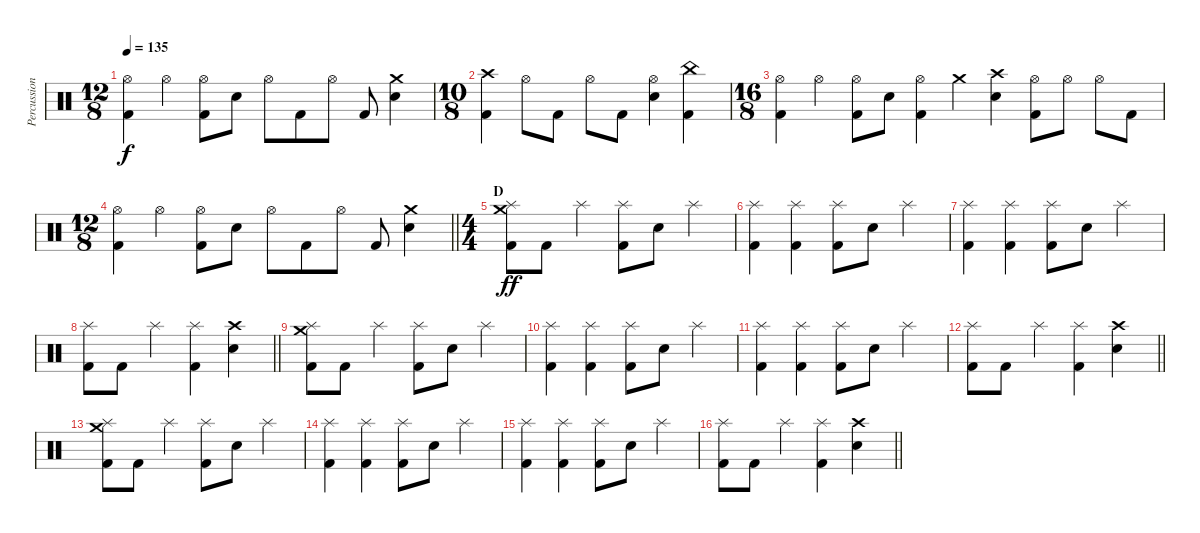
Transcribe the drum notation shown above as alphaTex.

\track ("Percussion" "Percussion") {instrument percussion}
\staff {score}
\articulation defaults
\ts (12 8)
\section ("" "")
\tempo 135
\clef neutral
\ks c
("Hi-Hat (open)" "Kick (hit) 2").4{dy f} "Hi-Hat (open)".4 ("Hi-Hat (open)" "Kick (hit) 2").8 "Snare (hit) 2".8 "Hi-Hat (open)".8 "Kick (hit) 2".8 "Hi-Hat (open)".8 "Kick (hit) 2".8 ("Crash medium (hit)" "Snare (hit) 2").4 |
\ts (10 8)
("Crash high (hit)" "Kick (hit) 2").4 "Hi-Hat (open)".8 "Kick (hit) 2".8 "Hi-Hat (open)".8 "Kick (hit) 2".8 ("Hi-Hat (open)" "Snare (hit) 2").4 ("China (hit)" "Kick (hit) 2").4 |
\ts (16 8)
("Hi-Hat (open)" "Kick (hit) 2").4 "Hi-Hat (open)".4 ("Hi-Hat (open)" "Kick (hit) 2").8 "Snare (hit) 2".8 ("Hi-Hat (open)" "Kick (hit) 2").4 "Crash medium (hit)".4 ("Crash high (hit)" "Snare (hit) 2").4 ("Hi-Hat (open)" "Kick (hit) 2").8 "Hi-Hat (open)".8 "Hi-Hat (open)".8 "Kick (hit) 2".8 |
\ts (12 8)
\barLineRight lightlight
("Hi-Hat (open)" "Kick (hit) 2").4 "Hi-Hat (open)".4 ("Hi-Hat (open)" "Kick (hit) 2").8 "Snare (hit) 2".8 "Hi-Hat (open)".8 "Kick (hit) 2".8 "Hi-Hat (open)".8 "Kick (hit) 2".8 ("Crash medium (hit)" "Snare (hit) 2").4 |
\ts (4 4)
\section ("" "D")
("Crash medium (hit)" "Splash (hit)" "Kick (hit) 2").8{dy ff} "Kick (hit) 2".8 "Splash (hit)".4 ("Splash (hit)" "Kick (hit) 2").8 "Electric Snare (hit)".8 "Splash (hit)".4 |
("Splash (hit)" "Kick (hit) 2").4 ("Splash (hit)" "Kick (hit) 2").4 ("Splash (hit)" "Kick (hit) 2").8 "Electric Snare (hit)".8 "Splash (hit)".4 |
("Splash (hit)" "Kick (hit) 2").4 ("Splash (hit)" "Kick (hit) 2").4 ("Splash (hit)" "Kick (hit) 2").8 "Electric Snare (hit)".8 "Splash (hit)".4 |
\barLineRight lightlight
("Splash (hit)" "Kick (hit) 2").8 "Kick (hit) 2".8 "Splash (hit)".4 ("Splash (hit)" "Kick (hit) 2").4 ("Crash high (hit)" "Electric Snare (hit)").4 |
\section ("" "")
("Crash medium (hit)" "Splash (hit)" "Kick (hit) 2").8 "Kick (hit) 2".8 "Splash (hit)".4 ("Splash (hit)" "Kick (hit) 2").8 "Electric Snare (hit)".8 "Splash (hit)".4 |
("Splash (hit)" "Kick (hit) 2").4 ("Splash (hit)" "Kick (hit) 2").4 ("Splash (hit)" "Kick (hit) 2").8 "Electric Snare (hit)".8 "Splash (hit)".4 |
("Splash (hit)" "Kick (hit) 2").4 ("Splash (hit)" "Kick (hit) 2").4 ("Splash (hit)" "Kick (hit) 2").8 "Electric Snare (hit)".8 "Splash (hit)".4 |
\barLineRight lightlight
("Splash (hit)" "Kick (hit) 2").8 "Kick (hit) 2".8 "Splash (hit)".4 ("Splash (hit)" "Kick (hit) 2").4 ("Crash high (hit)" "Electric Snare (hit)").4 |
\section ("" "")
("Crash medium (hit)" "Splash (hit)" "Kick (hit) 2").8 "Kick (hit) 2".8 "Splash (hit)".4 ("Splash (hit)" "Kick (hit) 2").8 "Electric Snare (hit)".8 "Splash (hit)".4 |
("Splash (hit)" "Kick (hit) 2").4 ("Splash (hit)" "Kick (hit) 2").4 ("Splash (hit)" "Kick (hit) 2").8 "Electric Snare (hit)".8 "Splash (hit)".4 |
("Splash (hit)" "Kick (hit) 2").4 ("Splash (hit)" "Kick (hit) 2").4 ("Splash (hit)" "Kick (hit) 2").8 "Electric Snare (hit)".8 "Splash (hit)".4 |
\barLineRight lightlight
("Splash (hit)" "Kick (hit) 2").8 "Kick (hit) 2".8 "Splash (hit)".4 ("Splash (hit)" "Kick (hit) 2").4 ("Crash high (hit)" "Electric Snare (hit)").4
